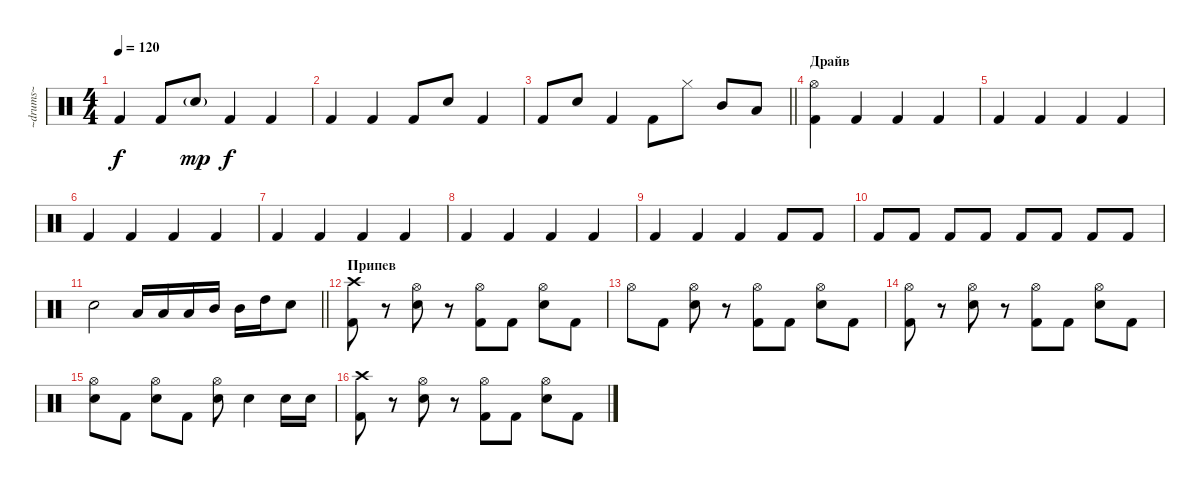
\track ("~drums~" "~drums~") {instrument percussion}
\staff {score}
\articulation defaults
\ts (4 4)
\tempo 120
\clef neutral
\ks c "Kick (hit) 2".4{dy f} "Kick (hit) 2".8 "Hand Clap (hit)"{g}.8{dy mp} "Kick (hit) 2".4{dy f} "Kick (hit) 2".4
|
"Kick (hit) 2".4 "Kick (hit) 2".4 "Kick (hit) 2".8 "Hand Clap (hit)".8 "Kick (hit) 2".4 |
\barLineRight lightlight "Kick (hit) 2".8 "Hand Clap (hit)".8 "Kick (hit) 2".4 "Kick (hit) 2".8 "Hi-Hat (closed)".8 "Mid Tom (hit)".8 "Low Tom (hit)".8
|
\section ("" "Драйв")
("Hi-Hat (open)" "Kick (hit) 2").4 "Kick (hit) 2".4 "Kick (hit) 2".4 "Kick (hit) 2".4 |
"Kick (hit) 2".4 "Kick (hit) 2".4 "Kick (hit) 2".4 "Kick (hit) 2".4 |
"Kick (hit) 2".4 "Kick (hit) 2".4 "Kick (hit) 2".4 "Kick (hit) 2".4 |
"Kick (hit) 2".4 "Kick (hit) 2".4 "Kick (hit) 2".4 "Kick (hit) 2".4 |
"Kick (hit) 2".4 "Kick (hit) 2".4 "Kick (hit) 2".4 "Kick (hit) 2".4 |
"Kick (hit) 2".4 "Kick (hit) 2".4 "Kick (hit) 2".4 "Kick (hit) 2".8 "Kick (hit) 2".8 |
"Kick (hit) 2".8 "Kick (hit) 2".8 "Kick (hit) 2".8 "Kick (hit) 2".8 "Kick (hit) 2".8 "Kick (hit) 2".8 "Kick (hit) 2".8 "Kick (hit) 2".8 |
\barLineRight lightlight "Snare (hit) 2".2 "Low Tom (hit)".16 "Low Tom (hit)".16 "Low Tom (hit)".16 "Mid Tom (hit)".16 "Mid Tom (hit)".16 "High Tom (hit)".16 "Snare (hit) 2".8
|
\section ("" "Припев")
("Crash high (hit)" "Kick (hit) 2").8 r.8 ("Hi-Hat (open)" "Snare (hit) 2").8 r.8 ("Hi-Hat (open)" "Kick (hit) 2").8 "Kick (hit) 2".8 ("Hi-Hat (open)" "Snare (hit) 2").8 "Kick (hit) 2".8 |
"Hi-Hat (open)".8 "Kick (hit) 2".8 ("Hi-Hat (open)" "Snare (hit) 2").8 r.8 ("Hi-Hat (open)" "Kick (hit) 2").8 "Kick (hit) 2".8 ("Hi-Hat (open)" "Snare (hit) 2").8 "Kick (hit) 2".8 |
("Hi-Hat (open)" "Kick (hit) 2").8 r.8 ("Hi-Hat (open)" "Snare (hit) 2").8 r.8 ("Hi-Hat (open)" "Kick (hit) 2").8 "Kick (hit) 2".8 ("Hi-Hat (open)" "Snare (hit) 2").8 "Kick (hit) 2".8 |
("Hi-Hat (open)" "Snare (hit) 2").8 "Kick (hit) 2".8 ("Hi-Hat (open)" "Snare (hit) 2").8 "Kick (hit) 2".8 ("Hi-Hat (open)" "Snare (hit) 2").8 "Snare (hit) 2".4 "Snare (hit) 2".16 "Snare (hit) 2".16 |
("Crash high (hit)" "Kick (hit) 2").8 r.8 ("Hi-Hat (open)" "Snare (hit) 2").8 r.8 ("Hi-Hat (open)" "Kick (hit) 2").8 "Kick (hit) 2".8 ("Hi-Hat (open)" "Snare (hit) 2").8 "Kick (hit) 2".8
